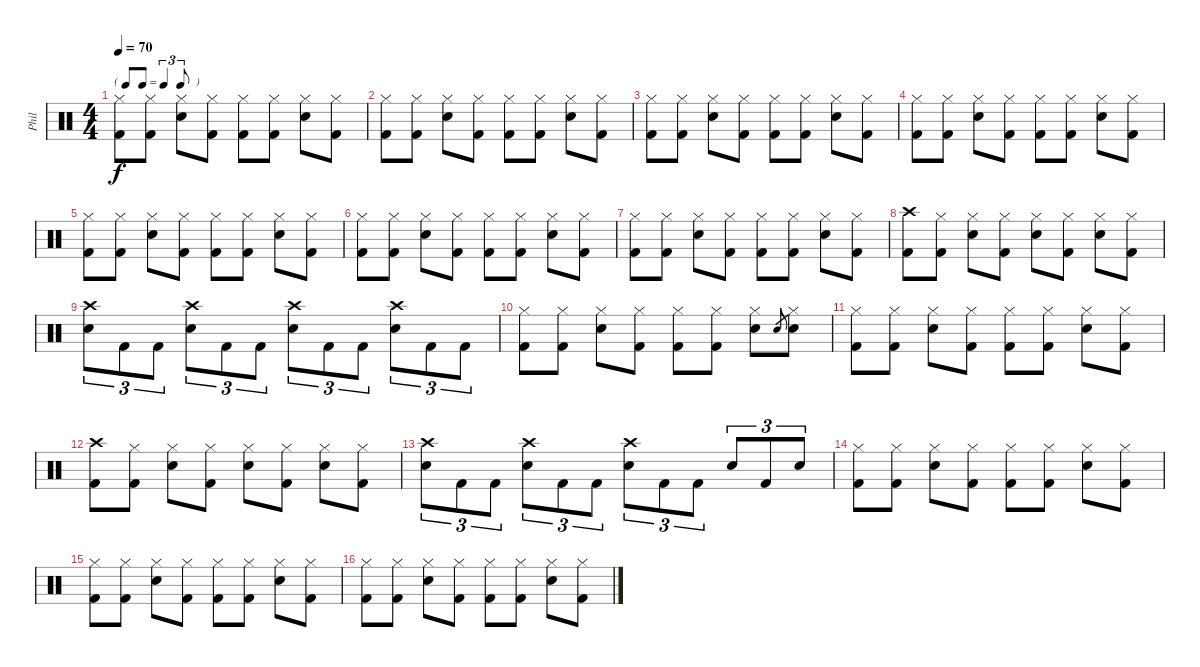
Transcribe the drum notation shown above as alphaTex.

\track ("Phil" "Phil") {instrument percussion}
\staff {score}
\articulation defaults
\ts (4 4)
\tf triplet8th
\tempo 70
\clef neutral
\ks c
("Hi-Hat (closed)" "Kick (hit) 2").8{dy f} ("Hi-Hat (closed)" "Kick (hit) 2").8 ("Hi-Hat (closed)" "Snare (hit) 2").8 ("Hi-Hat (closed)" "Kick (hit) 2").8 ("Hi-Hat (closed)" "Kick (hit) 2").8 ("Hi-Hat (closed)" "Kick (hit) 2").8 ("Hi-Hat (closed)" "Snare (hit) 2").8 ("Hi-Hat (closed)" "Kick (hit) 2").8 |
("Hi-Hat (closed)" "Kick (hit) 2").8 ("Hi-Hat (closed)" "Kick (hit) 2").8 ("Hi-Hat (closed)" "Snare (hit) 2").8 ("Hi-Hat (closed)" "Kick (hit) 2").8 ("Hi-Hat (closed)" "Kick (hit) 2").8 ("Hi-Hat (closed)" "Kick (hit) 2").8 ("Hi-Hat (closed)" "Snare (hit) 2").8 ("Hi-Hat (closed)" "Kick (hit) 2").8 |
("Hi-Hat (closed)" "Kick (hit) 2").8 ("Hi-Hat (closed)" "Kick (hit) 2").8 ("Hi-Hat (closed)" "Snare (hit) 2").8 ("Hi-Hat (closed)" "Kick (hit) 2").8 ("Hi-Hat (closed)" "Kick (hit) 2").8 ("Hi-Hat (closed)" "Kick (hit) 2").8 ("Hi-Hat (closed)" "Snare (hit) 2").8 ("Hi-Hat (closed)" "Kick (hit) 2").8 |
("Hi-Hat (closed)" "Kick (hit) 2").8 ("Hi-Hat (closed)" "Kick (hit) 2").8 ("Hi-Hat (closed)" "Snare (hit) 2").8 ("Hi-Hat (closed)" "Kick (hit) 2").8 ("Hi-Hat (closed)" "Kick (hit) 2").8 ("Hi-Hat (closed)" "Kick (hit) 2").8 ("Hi-Hat (closed)" "Snare (hit) 2").8 ("Hi-Hat (closed)" "Kick (hit) 2").8 |
("Hi-Hat (closed)" "Kick (hit) 2").8 ("Hi-Hat (closed)" "Kick (hit) 2").8 ("Hi-Hat (closed)" "Snare (hit) 2").8 ("Hi-Hat (closed)" "Kick (hit) 2").8 ("Hi-Hat (closed)" "Kick (hit) 2").8 ("Hi-Hat (closed)" "Kick (hit) 2").8 ("Hi-Hat (closed)" "Snare (hit) 2").8 ("Hi-Hat (closed)" "Kick (hit) 2").8 |
("Hi-Hat (closed)" "Kick (hit) 2").8 ("Hi-Hat (closed)" "Kick (hit) 2").8 ("Hi-Hat (closed)" "Snare (hit) 2").8 ("Hi-Hat (closed)" "Kick (hit) 2").8 ("Hi-Hat (closed)" "Kick (hit) 2").8 ("Hi-Hat (closed)" "Kick (hit) 2").8 ("Hi-Hat (closed)" "Snare (hit) 2").8 ("Hi-Hat (closed)" "Kick (hit) 2").8 |
("Hi-Hat (closed)" "Kick (hit) 2").8 ("Hi-Hat (closed)" "Kick (hit) 2").8 ("Hi-Hat (closed)" "Snare (hit) 2").8 ("Hi-Hat (closed)" "Kick (hit) 2").8 ("Hi-Hat (closed)" "Kick (hit) 2").8 ("Hi-Hat (closed)" "Kick (hit) 2").8 ("Hi-Hat (closed)" "Snare (hit) 2").8 ("Hi-Hat (closed)" "Kick (hit) 2").8 |
("Crash high (hit)" "Kick (hit) 2").8 ("Hi-Hat (closed)" "Kick (hit) 2").8 ("Hi-Hat (closed)" "Snare (hit) 2").8 ("Hi-Hat (closed)" "Kick (hit) 2").8 ("Hi-Hat (closed)" "Snare (hit) 2").8 ("Hi-Hat (closed)" "Kick (hit) 2").8 ("Hi-Hat (closed)" "Snare (hit) 2").8 ("Hi-Hat (closed)" "Kick (hit) 2").8 |
("Crash high (hit)" "Snare (hit) 2").8{tu (3 2)} "Kick (hit) 2".8{tu (3 2)} "Kick (hit) 2".8{tu (3 2)} ("Crash high (hit)" "Snare (hit) 2").8{tu (3 2)} "Kick (hit) 2".8{tu (3 2)} "Kick (hit) 2".8{tu (3 2)} ("Crash high (hit)" "Snare (hit) 2").8{tu (3 2)} "Kick (hit) 2".8{tu (3 2)} "Kick (hit) 2".8{tu (3 2)} ("Crash high (hit)" "Snare (hit) 2").8{tu (3 2)} "Kick (hit) 2".8{tu (3 2)} "Kick (hit) 2".8{tu (3 2)} |
("Hi-Hat (closed)" "Kick (hit) 2").8 ("Hi-Hat (closed)" "Kick (hit) 2").8 ("Hi-Hat (closed)" "Snare (hit) 2").8 ("Hi-Hat (closed)" "Kick (hit) 2").8 ("Hi-Hat (closed)" "Kick (hit) 2").8 ("Hi-Hat (closed)" "Kick (hit) 2").8 ("Hi-Hat (closed)" "Snare (hit) 2").8 "Snare (hit) 2".8{gr} ("Hi-Hat (closed)" "Snare (hit) 2").8 |
("Hi-Hat (closed)" "Kick (hit) 2").8 ("Hi-Hat (closed)" "Kick (hit) 2").8 ("Hi-Hat (closed)" "Snare (hit) 2").8 ("Hi-Hat (closed)" "Kick (hit) 2").8 ("Hi-Hat (closed)" "Kick (hit) 2").8 ("Hi-Hat (closed)" "Kick (hit) 2").8 ("Hi-Hat (closed)" "Snare (hit) 2").8 ("Hi-Hat (closed)" "Kick (hit) 2").8 |
("Crash high (hit)" "Kick (hit) 2").8 ("Hi-Hat (closed)" "Kick (hit) 2").8 ("Hi-Hat (closed)" "Snare (hit) 2").8 ("Hi-Hat (closed)" "Kick (hit) 2").8 ("Hi-Hat (closed)" "Snare (hit) 2").8 ("Hi-Hat (closed)" "Kick (hit) 2").8 ("Hi-Hat (closed)" "Snare (hit) 2").8 ("Hi-Hat (closed)" "Kick (hit) 2").8 |
("Crash high (hit)" "Snare (hit) 2").8{tu (3 2)} "Kick (hit) 2".8{tu (3 2)} "Kick (hit) 2".8{tu (3 2)} ("Crash high (hit)" "Snare (hit) 2").8{tu (3 2)} "Kick (hit) 2".8{tu (3 2)} "Kick (hit) 2".8{tu (3 2)} ("Crash high (hit)" "Snare (hit) 2").8{tu (3 2)} "Kick (hit) 2".8{tu (3 2)} "Kick (hit) 2".8{tu (3 2)} "Snare (hit) 2".8{tu (3 2)} "Kick (hit) 2".8{tu (3 2)} "Snare (hit) 2".8{tu (3 2)} |
("Hi-Hat (closed)" "Kick (hit) 2").8 ("Hi-Hat (closed)" "Kick (hit) 2").8 ("Hi-Hat (closed)" "Snare (hit) 2").8 ("Hi-Hat (closed)" "Kick (hit) 2").8 ("Hi-Hat (closed)" "Kick (hit) 2").8 ("Hi-Hat (closed)" "Kick (hit) 2").8 ("Hi-Hat (closed)" "Snare (hit) 2").8 ("Hi-Hat (closed)" "Kick (hit) 2").8 |
("Hi-Hat (closed)" "Kick (hit) 2").8 ("Hi-Hat (closed)" "Kick (hit) 2").8 ("Hi-Hat (closed)" "Snare (hit) 2").8 ("Hi-Hat (closed)" "Kick (hit) 2").8 ("Hi-Hat (closed)" "Kick (hit) 2").8 ("Hi-Hat (closed)" "Kick (hit) 2").8 ("Hi-Hat (closed)" "Snare (hit) 2").8 ("Hi-Hat (closed)" "Kick (hit) 2").8 |
("Hi-Hat (closed)" "Kick (hit) 2").8 ("Hi-Hat (closed)" "Kick (hit) 2").8 ("Hi-Hat (closed)" "Snare (hit) 2").8 ("Hi-Hat (closed)" "Kick (hit) 2").8 ("Hi-Hat (closed)" "Kick (hit) 2").8 ("Hi-Hat (closed)" "Kick (hit) 2").8 ("Hi-Hat (closed)" "Snare (hit) 2").8 ("Hi-Hat (closed)" "Kick (hit) 2").8
